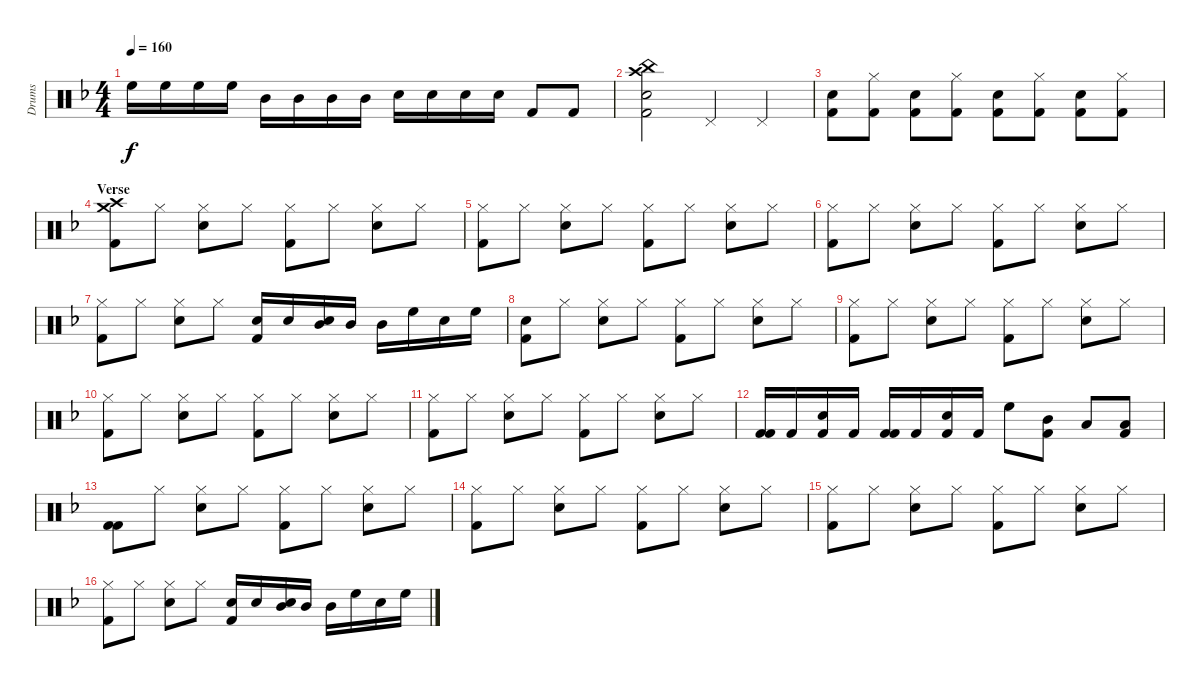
\track ("Drums" "Drums") {instrument percussion}
\staff {score}
\articulation defaults
\ts (4 4)
\tempo 160
\clef neutral
\ks dminor "High Floor Tom (hit)".16{dy f} "High Floor Tom (hit)".16 "High Floor Tom (hit)".16 "High Floor Tom (hit)".16 "Mid Tom (hit)".16 "Mid Tom (hit)".16 "Mid Tom (hit)".16 "Mid Tom (hit)".16 "Snare (hit) 2".16 "Snare (hit) 2".16 "Snare (hit) 2".16 "Snare (hit) 2".16 "Kick (hit) 2".8 "Kick (hit) 2".8
|
("Crash high (hit)" "Kick (hit) 2" "Snare (hit) 2" "China (hit)").2 "Pedal Hi-Hat (hit)".4 "Pedal Hi-Hat (hit)".4 |
("Kick (hit) 2" "Snare (hit) 2").8 ("Kick (hit) 2" "Hi-Hat (closed)").8 ("Kick (hit) 2" "Snare (hit) 2").8 ("Kick (hit) 2" "Hi-Hat (closed)").8 ("Kick (hit) 2" "Snare (hit) 2").8 ("Kick (hit) 2" "Hi-Hat (closed)").8 ("Kick (hit) 2" "Snare (hit) 2").8 ("Kick (hit) 2" "Hi-Hat (closed)").8 |
\section ("" "Verse")
("Crash high (hit)" "Crash medium (hit)" "Kick (hit) 2").8 "Hi-Hat (closed)".8 ("Hi-Hat (closed)" "Electric Snare (hit)").8 "Hi-Hat (closed)".8 ("Hi-Hat (closed)" "Kick (hit) 2").8 "Hi-Hat (closed)".8 ("Hi-Hat (closed)" "Electric Snare (hit)").8 "Hi-Hat (closed)".8 |
("Hi-Hat (closed)" "Kick (hit) 2").8 "Hi-Hat (closed)".8 ("Hi-Hat (closed)" "Electric Snare (hit)").8 "Hi-Hat (closed)".8 ("Hi-Hat (closed)" "Kick (hit) 2").8 "Hi-Hat (closed)".8 ("Hi-Hat (closed)" "Electric Snare (hit)").8 "Hi-Hat (closed)".8 |
("Hi-Hat (closed)" "Kick (hit) 2").8 "Hi-Hat (closed)".8 ("Hi-Hat (closed)" "Electric Snare (hit)").8 "Hi-Hat (closed)".8 ("Hi-Hat (closed)" "Kick (hit) 2").8 "Hi-Hat (closed)".8 ("Hi-Hat (closed)" "Electric Snare (hit)").8 "Hi-Hat (closed)".8 |
("Hi-Hat (closed)" "Kick (hit) 2").8 "Hi-Hat (closed)".8 ("Hi-Hat (closed)" "Electric Snare (hit)").8 "Hi-Hat (closed)".8 ("Snare (hit) 2" "Kick (hit) 2").16 "Snare (hit) 2".16 ("Mid Tom (hit)" "Electric Snare (hit)").16 "Mid Tom (hit)".16 "Mid Tom (hit)".16 "High Floor Tom (hit)".16 "Snare (hit) 2".16 "High Floor Tom (hit)".16 |
("Snare (hit) 2" "Kick (hit) 2").8 "Hi-Hat (closed)".8 ("Hi-Hat (closed)" "Electric Snare (hit)").8 "Hi-Hat (closed)".8 ("Hi-Hat (closed)" "Kick (hit) 2").8 "Hi-Hat (closed)".8 ("Hi-Hat (closed)" "Electric Snare (hit)").8 "Hi-Hat (closed)".8 |
("Hi-Hat (closed)" "Kick (hit) 2").8 "Hi-Hat (closed)".8 ("Hi-Hat (closed)" "Electric Snare (hit)").8 "Hi-Hat (closed)".8 ("Hi-Hat (closed)" "Kick (hit) 2").8 "Hi-Hat (closed)".8 ("Hi-Hat (closed)" "Electric Snare (hit)").8 "Hi-Hat (closed)".8 |
("Hi-Hat (closed)" "Kick (hit) 2").8 "Hi-Hat (closed)".8 ("Hi-Hat (closed)" "Electric Snare (hit)").8 "Hi-Hat (closed)".8 ("Hi-Hat (closed)" "Kick (hit) 2").8 "Hi-Hat (closed)".8 ("Hi-Hat (closed)" "Electric Snare (hit)").8 "Hi-Hat (closed)".8 |
("Hi-Hat (closed)" "Kick (hit) 2").8 "Hi-Hat (closed)".8 ("Hi-Hat (closed)" "Electric Snare (hit)").8 "Hi-Hat (closed)".8 ("Hi-Hat (closed)" "Kick (hit) 2").8 "Hi-Hat (closed)".8 ("Hi-Hat (closed)" "Electric Snare (hit)").8 "Hi-Hat (closed)".8 |
("Kick (hit) 2" "Kick (hit) 2").16 "Kick (hit) 2".16 ("Kick (hit) 2" "Electric Snare (hit)").16 "Kick (hit) 2".16 ("Kick (hit) 2" "Kick (hit) 2").16 "Kick (hit) 2".16 ("Kick (hit) 2" "Electric Snare (hit)").16 "Kick (hit) 2".16 "High Floor Tom (hit)".8 ("Mid Tom (hit)" "Kick (hit) 2").8 "Low Tom (hit)".8 ("Low Floor Tom (hit)" "Kick (hit) 2").8 |
("Kick (hit) 2" "Kick (hit) 2").8 "Hi-Hat (closed)".8 ("Hi-Hat (closed)" "Electric Snare (hit)").8 "Hi-Hat (closed)".8 ("Hi-Hat (closed)" "Kick (hit) 2").8 "Hi-Hat (closed)".8 ("Hi-Hat (closed)" "Electric Snare (hit)").8 "Hi-Hat (closed)".8 |
("Hi-Hat (closed)" "Kick (hit) 2").8 "Hi-Hat (closed)".8 ("Hi-Hat (closed)" "Electric Snare (hit)").8 "Hi-Hat (closed)".8 ("Hi-Hat (closed)" "Kick (hit) 2").8 "Hi-Hat (closed)".8 ("Hi-Hat (closed)" "Electric Snare (hit)").8 "Hi-Hat (closed)".8 |
("Hi-Hat (closed)" "Kick (hit) 2").8 "Hi-Hat (closed)".8 ("Hi-Hat (closed)" "Electric Snare (hit)").8 "Hi-Hat (closed)".8 ("Hi-Hat (closed)" "Kick (hit) 2").8 "Hi-Hat (closed)".8 ("Hi-Hat (closed)" "Electric Snare (hit)").8 "Hi-Hat (closed)".8 |
("Hi-Hat (closed)" "Kick (hit) 2").8 "Hi-Hat (closed)".8 ("Hi-Hat (closed)" "Electric Snare (hit)").8 "Hi-Hat (closed)".8 ("Snare (hit) 2" "Kick (hit) 2").16 "Snare (hit) 2".16 ("Mid Tom (hit)" "Electric Snare (hit)").16 "Mid Tom (hit)".16 "Mid Tom (hit)".16 "High Floor Tom (hit)".16 "Snare (hit) 2".16 "High Floor Tom (hit)".16
